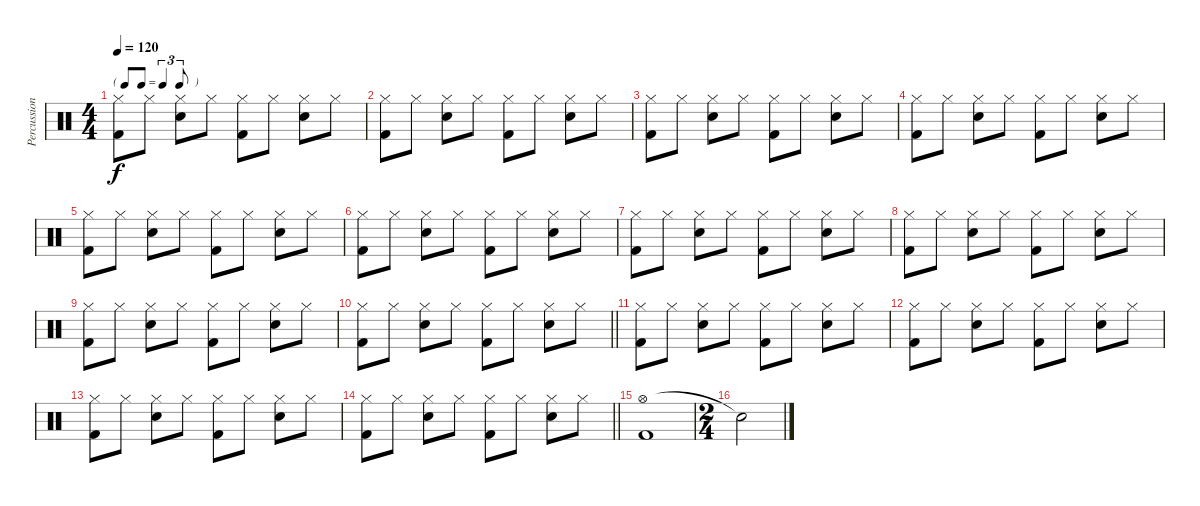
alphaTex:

\track ("Percussion" "Percussion") {instrument percussion}
\staff {score}
\articulation defaults
\ts (4 4)
\tf triplet8th
\tempo 120
\clef neutral
\ks c
("Hi-Hat (closed)" "Kick (hit) 2").8{dy f} "Hi-Hat (closed)".8 ("Hi-Hat (closed)" "Snare (hit) 2").8 "Hi-Hat (closed)".8 ("Hi-Hat (closed)" "Kick (hit) 2").8 "Hi-Hat (closed)".8 ("Hi-Hat (closed)" "Snare (hit) 2").8 "Hi-Hat (closed)".8 |
("Hi-Hat (closed)" "Kick (hit) 2").8 "Hi-Hat (closed)".8 ("Hi-Hat (closed)" "Snare (hit) 2").8 "Hi-Hat (closed)".8 ("Hi-Hat (closed)" "Kick (hit) 2").8 "Hi-Hat (closed)".8 ("Hi-Hat (closed)" "Snare (hit) 2").8 "Hi-Hat (closed)".8 |
("Hi-Hat (closed)" "Kick (hit) 2").8 "Hi-Hat (closed)".8 ("Hi-Hat (closed)" "Snare (hit) 2").8 "Hi-Hat (closed)".8 ("Hi-Hat (closed)" "Kick (hit) 2").8 "Hi-Hat (closed)".8 ("Hi-Hat (closed)" "Snare (hit) 2").8 "Hi-Hat (closed)".8 |
("Hi-Hat (closed)" "Kick (hit) 2").8 "Hi-Hat (closed)".8 ("Hi-Hat (closed)" "Snare (hit) 2").8 "Hi-Hat (closed)".8 ("Hi-Hat (closed)" "Kick (hit) 2").8 "Hi-Hat (closed)".8 ("Hi-Hat (closed)" "Snare (hit) 2").8 "Hi-Hat (closed)".8 |
("Hi-Hat (closed)" "Kick (hit) 2").8 "Hi-Hat (closed)".8 ("Hi-Hat (closed)" "Snare (hit) 2").8 "Hi-Hat (closed)".8 ("Hi-Hat (closed)" "Kick (hit) 2").8 "Hi-Hat (closed)".8 ("Hi-Hat (closed)" "Snare (hit) 2").8 "Hi-Hat (closed)".8 |
("Hi-Hat (closed)" "Kick (hit) 2").8 "Hi-Hat (closed)".8 ("Hi-Hat (closed)" "Snare (hit) 2").8 "Hi-Hat (closed)".8 ("Hi-Hat (closed)" "Kick (hit) 2").8 "Hi-Hat (closed)".8 ("Hi-Hat (closed)" "Snare (hit) 2").8 "Hi-Hat (closed)".8 |
("Hi-Hat (closed)" "Kick (hit) 2").8 "Hi-Hat (closed)".8 ("Hi-Hat (closed)" "Snare (hit) 2").8 "Hi-Hat (closed)".8 ("Hi-Hat (closed)" "Kick (hit) 2").8 "Hi-Hat (closed)".8 ("Hi-Hat (closed)" "Snare (hit) 2").8 "Hi-Hat (closed)".8 |
("Hi-Hat (closed)" "Kick (hit) 2").8 "Hi-Hat (closed)".8 ("Hi-Hat (closed)" "Snare (hit) 2").8 "Hi-Hat (closed)".8 ("Hi-Hat (closed)" "Kick (hit) 2").8 "Hi-Hat (closed)".8 ("Hi-Hat (closed)" "Snare (hit) 2").8 "Hi-Hat (closed)".8 |
("Hi-Hat (closed)" "Kick (hit) 2").8 "Hi-Hat (closed)".8 ("Hi-Hat (closed)" "Snare (hit) 2").8 "Hi-Hat (closed)".8 ("Hi-Hat (closed)" "Kick (hit) 2").8 "Hi-Hat (closed)".8 ("Hi-Hat (closed)" "Snare (hit) 2").8 "Hi-Hat (closed)".8 |
\barLineRight lightlight
("Hi-Hat (closed)" "Kick (hit) 2").8 "Hi-Hat (closed)".8 ("Hi-Hat (closed)" "Snare (hit) 2").8 "Hi-Hat (closed)".8 ("Hi-Hat (closed)" "Kick (hit) 2").8 "Hi-Hat (closed)".8 ("Hi-Hat (closed)" "Snare (hit) 2").8 "Hi-Hat (closed)".8 |
("Hi-Hat (closed)" "Kick (hit) 2").8 "Hi-Hat (closed)".8 ("Hi-Hat (closed)" "Snare (hit) 2").8 "Hi-Hat (closed)".8 ("Hi-Hat (closed)" "Kick (hit) 2").8 "Hi-Hat (closed)".8 ("Hi-Hat (closed)" "Snare (hit) 2").8 "Hi-Hat (closed)".8 |
("Hi-Hat (closed)" "Kick (hit) 2").8 "Hi-Hat (closed)".8 ("Hi-Hat (closed)" "Snare (hit) 2").8 "Hi-Hat (closed)".8 ("Hi-Hat (closed)" "Kick (hit) 2").8 "Hi-Hat (closed)".8 ("Hi-Hat (closed)" "Snare (hit) 2").8 "Hi-Hat (closed)".8 |
("Hi-Hat (closed)" "Kick (hit) 2").8 "Hi-Hat (closed)".8 ("Hi-Hat (closed)" "Snare (hit) 2").8 "Hi-Hat (closed)".8 ("Hi-Hat (closed)" "Kick (hit) 2").8 "Hi-Hat (closed)".8 ("Hi-Hat (closed)" "Snare (hit) 2").8 "Hi-Hat (closed)".8 |
\barLineRight lightlight
("Hi-Hat (closed)" "Kick (hit) 2").8 "Hi-Hat (closed)".8 ("Hi-Hat (closed)" "Snare (hit) 2").8 "Hi-Hat (closed)".8 ("Hi-Hat (closed)" "Kick (hit) 2").8 "Hi-Hat (closed)".8 ("Hi-Hat (closed)" "Snare (hit) 2").8 "Hi-Hat (closed)".8 |
("Hi-Hat (open)" "Kick (hit) 2").1 |
\ts (2 4)
"Snare (hit)"{t}.2
